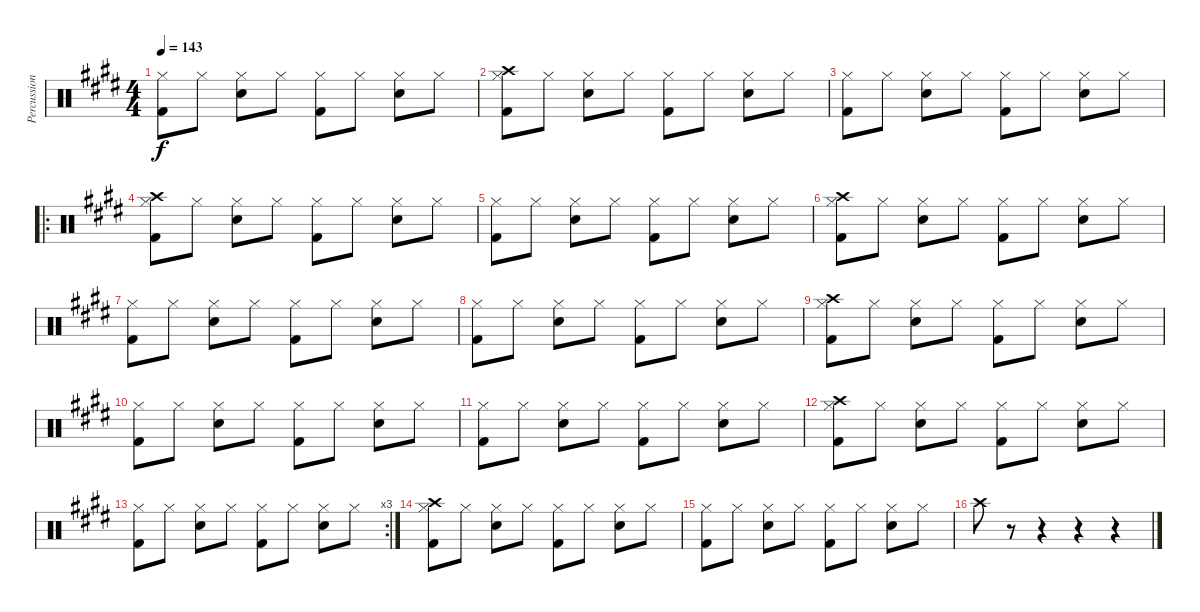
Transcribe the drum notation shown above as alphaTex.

\track ("Percussion" "Percussion") {instrument percussion}
\staff {score}
\articulation defaults
\ts (4 4)
\tempo 143
\clef neutral
\ks e
("Hi-Hat (closed)" "Kick (hit) 2").8{dy f} "Hi-Hat (closed)".8 ("Hi-Hat (closed)" "Snare (hit) 2").8 "Hi-Hat (closed)".8 ("Hi-Hat (closed)" "Kick (hit) 2").8 "Hi-Hat (closed)".8 ("Hi-Hat (closed)" "Snare (hit) 2").8 "Hi-Hat (closed)".8 |
("Hi-Hat (closed)" "Kick (hit) 2" "Crash high (hit)").8 "Hi-Hat (closed)".8 ("Hi-Hat (closed)" "Snare (hit) 2").8 "Hi-Hat (closed)".8 ("Hi-Hat (closed)" "Kick (hit) 2").8 "Hi-Hat (closed)".8 ("Hi-Hat (closed)" "Snare (hit) 2").8 "Hi-Hat (closed)".8 |
("Hi-Hat (closed)" "Kick (hit) 2").8 "Hi-Hat (closed)".8 ("Hi-Hat (closed)" "Snare (hit) 2").8 "Hi-Hat (closed)".8 ("Hi-Hat (closed)" "Kick (hit) 2").8 "Hi-Hat (closed)".8 ("Hi-Hat (closed)" "Snare (hit) 2").8 "Hi-Hat (closed)".8 |
\ro
("Hi-Hat (closed)" "Kick (hit) 2" "Crash high (hit)").8 "Hi-Hat (closed)".8 ("Hi-Hat (closed)" "Snare (hit) 2").8 "Hi-Hat (closed)".8 ("Hi-Hat (closed)" "Kick (hit) 2").8 "Hi-Hat (closed)".8 ("Hi-Hat (closed)" "Snare (hit) 2").8 "Hi-Hat (closed)".8 |
("Hi-Hat (closed)" "Kick (hit) 2").8 "Hi-Hat (closed)".8 ("Hi-Hat (closed)" "Snare (hit) 2").8 "Hi-Hat (closed)".8 ("Hi-Hat (closed)" "Kick (hit) 2").8 "Hi-Hat (closed)".8 ("Hi-Hat (closed)" "Snare (hit) 2").8 "Hi-Hat (closed)".8 |
("Hi-Hat (closed)" "Kick (hit) 2" "Crash high (hit)").8 "Hi-Hat (closed)".8 ("Hi-Hat (closed)" "Snare (hit) 2").8 "Hi-Hat (closed)".8 ("Hi-Hat (closed)" "Kick (hit) 2").8 "Hi-Hat (closed)".8 ("Hi-Hat (closed)" "Snare (hit) 2").8 "Hi-Hat (closed)".8 |
("Hi-Hat (closed)" "Kick (hit) 2").8 "Hi-Hat (closed)".8 ("Hi-Hat (closed)" "Snare (hit) 2").8 "Hi-Hat (closed)".8 ("Hi-Hat (closed)" "Kick (hit) 2").8 "Hi-Hat (closed)".8 ("Hi-Hat (closed)" "Snare (hit) 2").8 "Hi-Hat (closed)".8 |
("Hi-Hat (closed)" "Kick (hit) 2").8 "Hi-Hat (closed)".8 ("Hi-Hat (closed)" "Snare (hit) 2").8 "Hi-Hat (closed)".8 ("Hi-Hat (closed)" "Kick (hit) 2").8 "Hi-Hat (closed)".8 ("Hi-Hat (closed)" "Snare (hit) 2").8 "Hi-Hat (closed)".8 |
("Hi-Hat (closed)" "Kick (hit) 2" "Crash high (hit)").8 "Hi-Hat (closed)".8 ("Hi-Hat (closed)" "Snare (hit) 2").8 "Hi-Hat (closed)".8 ("Hi-Hat (closed)" "Kick (hit) 2").8 "Hi-Hat (closed)".8 ("Hi-Hat (closed)" "Snare (hit) 2").8 "Hi-Hat (closed)".8 |
("Hi-Hat (closed)" "Kick (hit) 2").8 "Hi-Hat (closed)".8 ("Hi-Hat (closed)" "Snare (hit) 2").8 "Hi-Hat (closed)".8 ("Hi-Hat (closed)" "Kick (hit) 2").8 "Hi-Hat (closed)".8 ("Hi-Hat (closed)" "Snare (hit) 2").8 "Hi-Hat (closed)".8 |
("Hi-Hat (closed)" "Kick (hit) 2").8 "Hi-Hat (closed)".8 ("Hi-Hat (closed)" "Snare (hit) 2").8 "Hi-Hat (closed)".8 ("Hi-Hat (closed)" "Kick (hit) 2").8 "Hi-Hat (closed)".8 ("Hi-Hat (closed)" "Snare (hit) 2").8 "Hi-Hat (closed)".8 |
("Hi-Hat (closed)" "Kick (hit) 2" "Crash high (hit)").8 "Hi-Hat (closed)".8 ("Hi-Hat (closed)" "Snare (hit) 2").8 "Hi-Hat (closed)".8 ("Hi-Hat (closed)" "Kick (hit) 2").8 "Hi-Hat (closed)".8 ("Hi-Hat (closed)" "Snare (hit) 2").8 "Hi-Hat (closed)".8 |
\rc 3
("Hi-Hat (closed)" "Kick (hit) 2").8 "Hi-Hat (closed)".8 ("Hi-Hat (closed)" "Snare (hit) 2").8 "Hi-Hat (closed)".8 ("Hi-Hat (closed)" "Kick (hit) 2").8 "Hi-Hat (closed)".8 ("Hi-Hat (closed)" "Snare (hit) 2").8 "Hi-Hat (closed)".8 |
("Hi-Hat (closed)" "Kick (hit) 2" "Crash high (hit)").8 "Hi-Hat (closed)".8 ("Hi-Hat (closed)" "Snare (hit) 2").8 "Hi-Hat (closed)".8 ("Hi-Hat (closed)" "Kick (hit) 2").8 "Hi-Hat (closed)".8 ("Hi-Hat (closed)" "Snare (hit) 2").8 "Hi-Hat (closed)".8 |
("Hi-Hat (closed)" "Kick (hit) 2").8 "Hi-Hat (closed)".8 ("Hi-Hat (closed)" "Snare (hit) 2").8 "Hi-Hat (closed)".8 ("Hi-Hat (closed)" "Kick (hit) 2").8 "Hi-Hat (closed)".8 ("Hi-Hat (closed)" "Snare (hit) 2").8 "Hi-Hat (closed)".8 |
"Crash high (hit)".8 r.8 r.4 r.4 r.4
